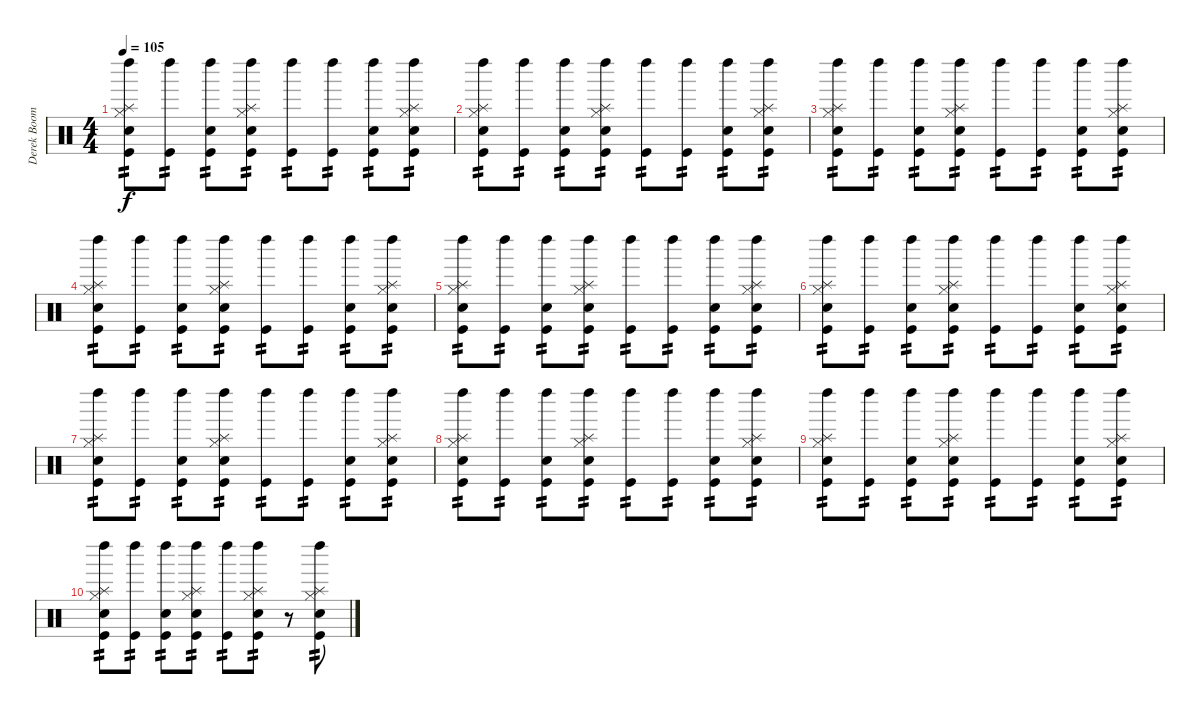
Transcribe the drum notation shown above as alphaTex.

\track ("Derek Boom" "Derek Boom") {instrument percussion}
\staff {score}
\articulation defaults
\ts (4 4)
\tempo 105
\clef neutral
\ks c
("Splash (hit)" "Hi-Hat (closed)" "Left Maraca (hit)" "Electric Snare (hit)" "Kick (hit)").8{tp 2 dy f} ("Left Maraca (hit)" "Kick (hit)").8{tp 2} ("Left Maraca (hit)" "Electric Snare (hit)" "Kick (hit)").8{tp 2} ("Splash (hit)" "Hi-Hat (closed)" "Left Maraca (hit)" "Electric Snare (hit)" "Kick (hit)").8{tp 2} ("Left Maraca (hit)" "Kick (hit)").8{tp 2} ("Left Maraca (hit)" "Kick (hit)").8{tp 2} ("Left Maraca (hit)" "Electric Snare (hit)" "Kick (hit)").8{tp 2} ("Splash (hit)" "Hi-Hat (closed)" "Left Maraca (hit)" "Electric Snare (hit)" "Kick (hit)").8{tp 2} |
("Splash (hit)" "Hi-Hat (closed)" "Left Maraca (hit)" "Electric Snare (hit)" "Kick (hit)").8{tp 2} ("Left Maraca (hit)" "Kick (hit)").8{tp 2} ("Left Maraca (hit)" "Electric Snare (hit)" "Kick (hit)").8{tp 2} ("Splash (hit)" "Hi-Hat (closed)" "Left Maraca (hit)" "Electric Snare (hit)" "Kick (hit)").8{tp 2} ("Left Maraca (hit)" "Kick (hit)").8{tp 2} ("Left Maraca (hit)" "Kick (hit)").8{tp 2} ("Left Maraca (hit)" "Electric Snare (hit)" "Kick (hit)").8{tp 2} ("Splash (hit)" "Hi-Hat (closed)" "Left Maraca (hit)" "Electric Snare (hit)" "Kick (hit)").8{tp 2} |
("Splash (hit)" "Hi-Hat (closed)" "Left Maraca (hit)" "Electric Snare (hit)" "Kick (hit)").8{tp 2} ("Left Maraca (hit)" "Kick (hit)").8{tp 2} ("Left Maraca (hit)" "Electric Snare (hit)" "Kick (hit)").8{tp 2} ("Splash (hit)" "Hi-Hat (closed)" "Left Maraca (hit)" "Electric Snare (hit)" "Kick (hit)").8{tp 2} ("Left Maraca (hit)" "Kick (hit)").8{tp 2} ("Left Maraca (hit)" "Kick (hit)").8{tp 2} ("Left Maraca (hit)" "Electric Snare (hit)" "Kick (hit)").8{tp 2} ("Splash (hit)" "Hi-Hat (closed)" "Left Maraca (hit)" "Electric Snare (hit)" "Kick (hit)").8{tp 2} |
("Splash (hit)" "Hi-Hat (closed)" "Left Maraca (hit)" "Electric Snare (hit)" "Kick (hit)").8{tp 2} ("Left Maraca (hit)" "Kick (hit)").8{tp 2} ("Left Maraca (hit)" "Electric Snare (hit)" "Kick (hit)").8{tp 2} ("Splash (hit)" "Hi-Hat (closed)" "Left Maraca (hit)" "Electric Snare (hit)" "Kick (hit)").8{tp 2} ("Left Maraca (hit)" "Kick (hit)").8{tp 2} ("Left Maraca (hit)" "Kick (hit)").8{tp 2} ("Left Maraca (hit)" "Electric Snare (hit)" "Kick (hit)").8{tp 2} ("Splash (hit)" "Hi-Hat (closed)" "Left Maraca (hit)" "Electric Snare (hit)" "Kick (hit)").8{tp 2} |
("Splash (hit)" "Hi-Hat (closed)" "Left Maraca (hit)" "Electric Snare (hit)" "Kick (hit)").8{tp 2} ("Left Maraca (hit)" "Kick (hit)").8{tp 2} ("Left Maraca (hit)" "Electric Snare (hit)" "Kick (hit)").8{tp 2} ("Splash (hit)" "Hi-Hat (closed)" "Left Maraca (hit)" "Electric Snare (hit)" "Kick (hit)").8{tp 2} ("Left Maraca (hit)" "Kick (hit)").8{tp 2} ("Left Maraca (hit)" "Kick (hit)").8{tp 2} ("Left Maraca (hit)" "Electric Snare (hit)" "Kick (hit)").8{tp 2} ("Splash (hit)" "Hi-Hat (closed)" "Left Maraca (hit)" "Electric Snare (hit)" "Kick (hit)").8{tp 2} |
("Splash (hit)" "Hi-Hat (closed)" "Left Maraca (hit)" "Electric Snare (hit)" "Kick (hit)").8{tp 2} ("Left Maraca (hit)" "Kick (hit)").8{tp 2} ("Left Maraca (hit)" "Electric Snare (hit)" "Kick (hit)").8{tp 2} ("Splash (hit)" "Hi-Hat (closed)" "Left Maraca (hit)" "Electric Snare (hit)" "Kick (hit)").8{tp 2} ("Left Maraca (hit)" "Kick (hit)").8{tp 2} ("Left Maraca (hit)" "Kick (hit)").8{tp 2} ("Left Maraca (hit)" "Electric Snare (hit)" "Kick (hit)").8{tp 2} ("Splash (hit)" "Hi-Hat (closed)" "Left Maraca (hit)" "Electric Snare (hit)" "Kick (hit)").8{tp 2} |
("Splash (hit)" "Hi-Hat (closed)" "Left Maraca (hit)" "Electric Snare (hit)" "Kick (hit)").8{tp 2} ("Left Maraca (hit)" "Kick (hit)").8{tp 2} ("Left Maraca (hit)" "Electric Snare (hit)" "Kick (hit)").8{tp 2} ("Splash (hit)" "Hi-Hat (closed)" "Left Maraca (hit)" "Electric Snare (hit)" "Kick (hit)").8{tp 2} ("Left Maraca (hit)" "Kick (hit)").8{tp 2} ("Left Maraca (hit)" "Kick (hit)").8{tp 2} ("Left Maraca (hit)" "Electric Snare (hit)" "Kick (hit)").8{tp 2} ("Splash (hit)" "Hi-Hat (closed)" "Left Maraca (hit)" "Electric Snare (hit)" "Kick (hit)").8{tp 2} |
("Splash (hit)" "Hi-Hat (closed)" "Left Maraca (hit)" "Electric Snare (hit)" "Kick (hit)").8{tp 2} ("Left Maraca (hit)" "Kick (hit)").8{tp 2} ("Left Maraca (hit)" "Electric Snare (hit)" "Kick (hit)").8{tp 2} ("Splash (hit)" "Hi-Hat (closed)" "Left Maraca (hit)" "Electric Snare (hit)" "Kick (hit)").8{tp 2} ("Left Maraca (hit)" "Kick (hit)").8{tp 2} ("Left Maraca (hit)" "Kick (hit)").8{tp 2} ("Left Maraca (hit)" "Electric Snare (hit)" "Kick (hit)").8{tp 2} ("Splash (hit)" "Hi-Hat (closed)" "Left Maraca (hit)" "Electric Snare (hit)" "Kick (hit)").8{tp 2} |
("Splash (hit)" "Hi-Hat (closed)" "Left Maraca (hit)" "Electric Snare (hit)" "Kick (hit)").8{tp 2} ("Left Maraca (hit)" "Kick (hit)").8{tp 2} ("Left Maraca (hit)" "Electric Snare (hit)" "Kick (hit)").8{tp 2} ("Splash (hit)" "Hi-Hat (closed)" "Left Maraca (hit)" "Electric Snare (hit)" "Kick (hit)").8{tp 2} ("Left Maraca (hit)" "Kick (hit)").8{tp 2} ("Left Maraca (hit)" "Kick (hit)").8{tp 2} ("Left Maraca (hit)" "Electric Snare (hit)" "Kick (hit)").8{tp 2} ("Splash (hit)" "Hi-Hat (closed)" "Left Maraca (hit)" "Electric Snare (hit)" "Kick (hit)").8{tp 2} |
("Splash (hit)" "Hi-Hat (closed)" "Left Maraca (hit)" "Electric Snare (hit)" "Kick (hit)").8{tp 2} ("Left Maraca (hit)" "Kick (hit)").8{tp 2} ("Left Maraca (hit)" "Electric Snare (hit)" "Kick (hit)").8{tp 2} ("Splash (hit)" "Hi-Hat (closed)" "Left Maraca (hit)" "Electric Snare (hit)" "Kick (hit)").8{tp 2} ("Left Maraca (hit)" "Kick (hit)").8{tp 2} ("Splash (hit)" "Hi-Hat (closed)" "Left Maraca (hit)" "Electric Snare (hit)" "Kick (hit)").8{tp 2} r.8 ("Splash (hit)" "Hi-Hat (closed)" "Left Maraca (hit)" "Electric Snare (hit)" "Kick (hit)").8{tp 2}
